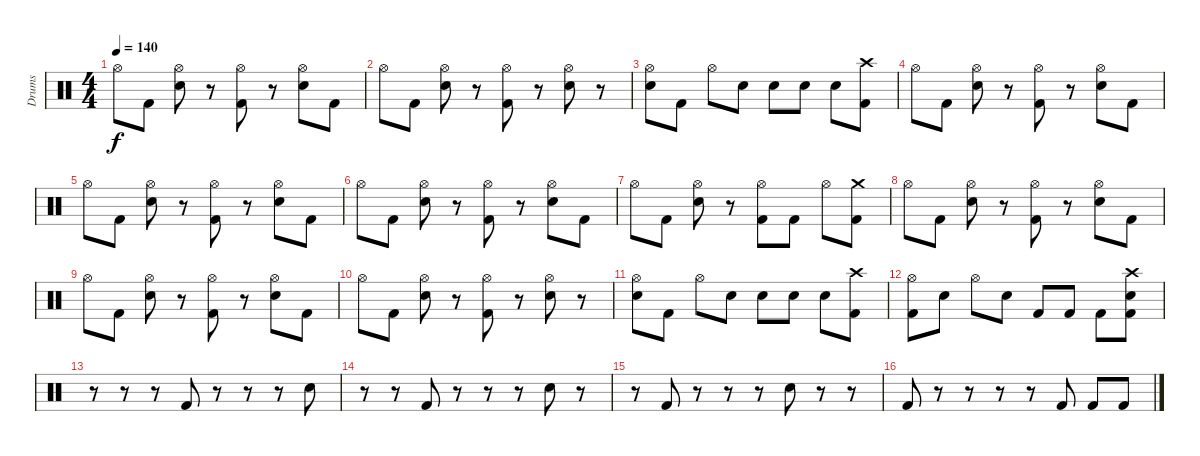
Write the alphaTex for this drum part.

\track ("Drums" "Drums") {instrument percussion}
\staff {score}
\articulation defaults
\ts (4 4)
\tempo 140
\clef neutral
\ks c "Hi-Hat (open)".8{dy f} "Kick (hit) 2".8
("Hi-Hat (open)" "Electric Snare (hit)").8 r.8 ("Hi-Hat (open)" "Kick (hit) 2").8 r.8 ("Hi-Hat (open)" "Electric Snare (hit)").8 "Kick (hit) 2".8 |
"Hi-Hat (open)".8 "Kick (hit) 2".8 ("Hi-Hat (open)" "Electric Snare (hit)").8 r.8 ("Hi-Hat (open)" "Kick (hit) 2").8 r.8 ("Hi-Hat (open)" "Electric Snare (hit)").8 r.8 |
("Hi-Hat (open)" "Electric Snare (hit)").8 "Kick (hit) 2".8 "Hi-Hat (open)".8 "Electric Snare (hit)".8 "Electric Snare (hit)".8 "Electric Snare (hit)".8 "Electric Snare (hit)".8 ("Crash high (hit)" "Kick (hit) 2").8 |
"Hi-Hat (open)".8 "Kick (hit) 2".8 ("Hi-Hat (open)" "Electric Snare (hit)").8 r.8 ("Hi-Hat (open)" "Kick (hit) 2").8 r.8 ("Hi-Hat (open)" "Electric Snare (hit)").8 "Kick (hit) 2".8 |
"Hi-Hat (open)".8 "Kick (hit) 2".8 ("Hi-Hat (open)" "Electric Snare (hit)").8 r.8 ("Hi-Hat (open)" "Kick (hit) 2").8 r.8 ("Hi-Hat (open)" "Electric Snare (hit)").8 "Kick (hit) 2".8 |
"Hi-Hat (open)".8 "Kick (hit) 2".8 ("Hi-Hat (open)" "Electric Snare (hit)").8 r.8 ("Hi-Hat (open)" "Kick (hit) 2").8 r.8 ("Hi-Hat (open)" "Electric Snare (hit)").8 "Kick (hit) 2".8 |
"Hi-Hat (open)".8 "Kick (hit) 2".8 ("Hi-Hat (open)" "Electric Snare (hit)").8 r.8 ("Hi-Hat (open)" "Kick (hit) 2").8 "Kick (hit) 2".8 "Hi-Hat (open)".8 ("Crash medium (hit)" "Kick (hit) 2").8 |
"Hi-Hat (open)".8 "Kick (hit) 2".8 ("Hi-Hat (open)" "Electric Snare (hit)").8 r.8 ("Hi-Hat (open)" "Kick (hit) 2").8 r.8 ("Hi-Hat (open)" "Electric Snare (hit)").8 "Kick (hit) 2".8 |
"Hi-Hat (open)".8 "Kick (hit) 2".8 ("Hi-Hat (open)" "Electric Snare (hit)").8 r.8 ("Hi-Hat (open)" "Kick (hit) 2").8 r.8 ("Hi-Hat (open)" "Electric Snare (hit)").8 "Kick (hit) 2".8 |
"Hi-Hat (open)".8 "Kick (hit) 2".8 ("Hi-Hat (open)" "Electric Snare (hit)").8 r.8 ("Hi-Hat (open)" "Kick (hit) 2").8 r.8 ("Hi-Hat (open)" "Electric Snare (hit)").8 r.8 |
("Hi-Hat (open)" "Electric Snare (hit)").8 "Kick (hit) 2".8 "Hi-Hat (open)".8 "Electric Snare (hit)".8 "Electric Snare (hit)".8 "Electric Snare (hit)".8 "Electric Snare (hit)".8 ("Crash high (hit)" "Kick (hit) 2").8 |
("Hi-Hat (open)" "Kick (hit) 2").8 "Electric Snare (hit)".8 "Hi-Hat (open)".8 "Electric Snare (hit)".8 "Kick (hit) 2".8 "Kick (hit) 2".8 "Kick (hit) 2".8 ("Crash high (hit)" "Electric Snare (hit)" "Kick (hit) 2").8 |
r.8 r.8 r.8 "Kick (hit) 2".8 r.8 r.8 r.8 "Electric Snare (hit)".8 |
r.8 r.8 "Kick (hit) 2".8 r.8 r.8 r.8 "Electric Snare (hit)".8 r.8 |
r.8 "Kick (hit) 2".8 r.8 r.8 r.8 "Electric Snare (hit)".8 r.8 r.8 |
"Kick (hit) 2".8 r.8 r.8 r.8 r.8 "Kick (hit) 2".8 "Kick (hit) 2".8 "Kick (hit) 2".8
